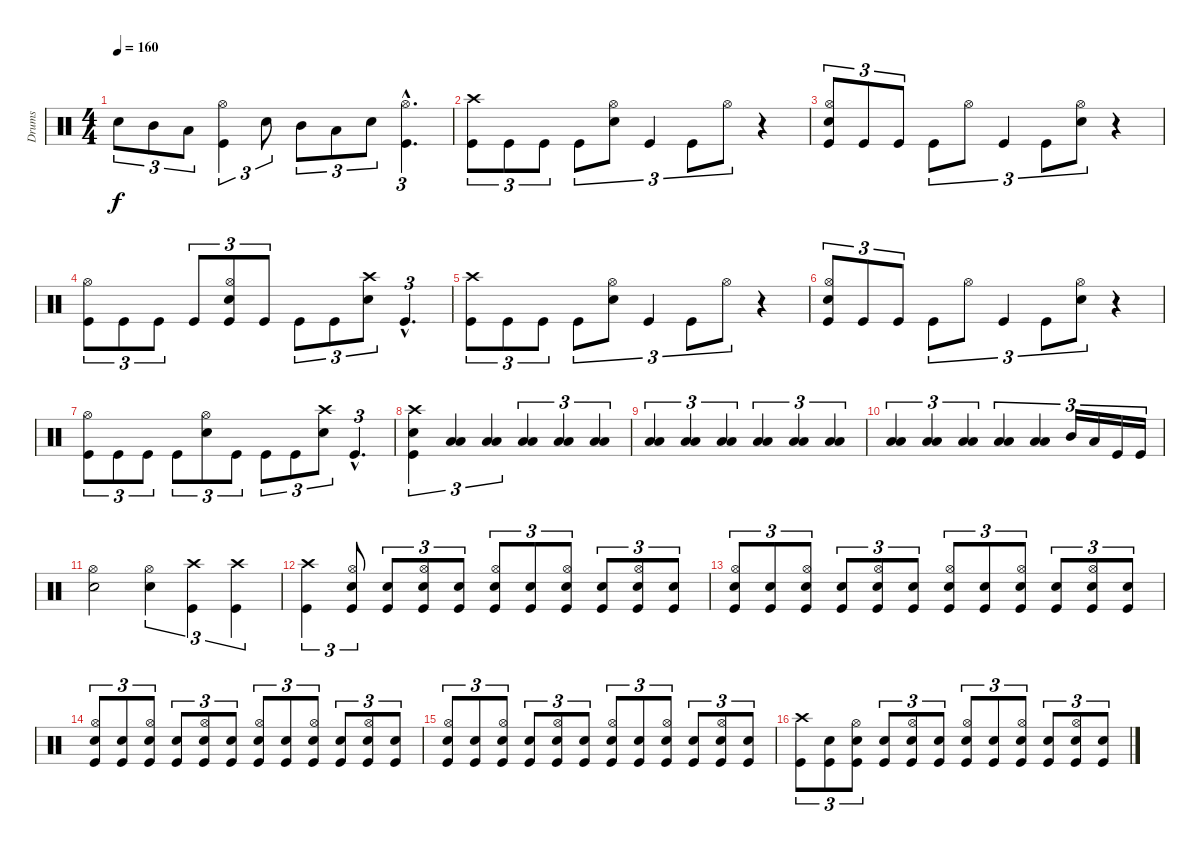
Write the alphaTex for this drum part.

\track ("Drums" "Drums") {instrument percussion}
\staff {score}
\articulation defaults
\ts (4 4)
\tempo 160
\clef neutral
\ks c "Electric Snare (hit)".8{tu (3 2) dy f} "Mid Tom (hit)".8{tu (3 2)} "Low Tom (hit)".8{tu (3 2)}
("Hi-Hat (open)" "Kick (hit)").4{tu (3 2)} "Electric Snare (hit)".8{tu (3 2)} "Mid Tom (hit)".8{tu (3 2)} "Low Tom (hit)".8{tu (3 2)} "Electric Snare (hit)".8{tu (3 2)} ("Hi-Hat (open)"{hac} "Kick (hit)"{hac}).4{d tu (3 2)} |
("Crash high (hit)" "Kick (hit)").8{tu (3 2)} "Kick (hit)".8{tu (3 2)} "Kick (hit)".8{tu (3 2)} "Kick (hit)".8{tu (3 2)} ("Electric Snare (hit)" "Hi-Hat (open)").8{tu (3 2)} "Kick (hit)".4{tu (3 2)} "Kick (hit)".8{tu (3 2)} "Hi-Hat (open)".8{tu (3 2)} r.4 |
("Electric Snare (hit)" "Hi-Hat (open)" "Kick (hit)").8{tu (3 2)} "Kick (hit)".8{tu (3 2)} "Kick (hit)".8{tu (3 2)} "Kick (hit)".8{tu (3 2)} "Hi-Hat (open)".8{tu (3 2)} "Kick (hit)".4{tu (3 2)} "Kick (hit)".8{tu (3 2)} ("Electric Snare (hit)" "Hi-Hat (open)").8{tu (3 2)} r.4 |
("Hi-Hat (open)" "Kick (hit)").8{tu (3 2)} "Kick (hit)".8{tu (3 2)} "Kick (hit)".8{tu (3 2)} "Kick (hit)".8{tu (3 2)} ("Kick (hit)" "Hi-Hat (open)" "Electric Snare (hit)").8{tu (3 2)} "Kick (hit)".8{tu (3 2)} "Kick (hit)".8{tu (3 2)} "Kick (hit)".8{tu (3 2)} ("Crash high (hit)" "Electric Snare (hit)").8{tu (3 2)} "Kick (hit)"{hac}.4{d tu (3 2)} |
("Crash high (hit)" "Kick (hit)").8{tu (3 2)} "Kick (hit)".8{tu (3 2)} "Kick (hit)".8{tu (3 2)} "Kick (hit)".8{tu (3 2)} ("Electric Snare (hit)" "Hi-Hat (open)").8{tu (3 2)} "Kick (hit)".4{tu (3 2)} "Kick (hit)".8{tu (3 2)} "Hi-Hat (open)".8{tu (3 2)} r.4 |
("Electric Snare (hit)" "Hi-Hat (open)" "Kick (hit)").8{tu (3 2)} "Kick (hit)".8{tu (3 2)} "Kick (hit)".8{tu (3 2)} "Kick (hit)".8{tu (3 2)} "Hi-Hat (open)".8{tu (3 2)} "Kick (hit)".4{tu (3 2)} "Kick (hit)".8{tu (3 2)} ("Electric Snare (hit)" "Hi-Hat (open)").8{tu (3 2)} r.4 |
("Hi-Hat (open)" "Kick (hit)").8{tu (3 2)} "Kick (hit)".8{tu (3 2)} "Kick (hit)".8{tu (3 2)} "Kick (hit)".8{tu (3 2)} ("Hi-Hat (open)" "Electric Snare (hit)").8{tu (3 2)} "Kick (hit)".8{tu (3 2)} "Kick (hit)".8{tu (3 2)} "Kick (hit)".8{tu (3 2)} ("Crash high (hit)" "Electric Snare (hit)").8{tu (3 2)} "Kick (hit)"{hac}.4{d tu (3 2)} |
("Kick (hit)" "Crash high (hit)" "Electric Snare (hit)").4{tu (3 2)} ("Low Tom (hit)" "Low Floor Tom (hit)").4{tu (3 2)} ("Low Tom (hit)" "Low Floor Tom (hit)").4{tu (3 2)} ("Low Tom (hit)" "Low Floor Tom (hit)").4{tu (3 2)} ("Low Tom (hit)" "Low Floor Tom (hit)").4{tu (3 2)} ("Low Tom (hit)" "Low Floor Tom (hit)").4{tu (3 2)} |
("Low Tom (hit)" "Low Floor Tom (hit)").4{tu (3 2)} ("Low Tom (hit)" "Low Floor Tom (hit)").4{tu (3 2)} ("Low Tom (hit)" "Low Floor Tom (hit)").4{tu (3 2)} ("Low Tom (hit)" "Low Floor Tom (hit)").4{tu (3 2)} ("Low Tom (hit)" "Low Floor Tom (hit)").4{tu (3 2)} ("Low Tom (hit)" "Low Floor Tom (hit)").4{tu (3 2)} |
("Low Tom (hit)" "Low Floor Tom (hit)").4{tu (3 2)} ("Low Tom (hit)" "Low Floor Tom (hit)").4{tu (3 2)} ("Low Tom (hit)" "Low Floor Tom (hit)").4{tu (3 2)} ("Low Tom (hit)" "Low Floor Tom (hit)").4{tu (3 2)} ("Low Tom (hit)" "Low Floor Tom (hit)").4{tu (3 2)} "Mid Tom (hit)".16{tu (3 2)} "Low Tom (hit)".16{tu (3 2)} "Kick (hit)".16{tu (3 2)} "Kick (hit)".16{tu (3 2)} |
("Hi-Hat (open)" "Electric Snare (hit)").2 ("Hi-Hat (open)" "Electric Snare (hit)").4{tu (3 2)} ("Crash high (hit)" "Kick (hit)").4{tu (3 2)} ("Crash high (hit)" "Kick (hit)").4{tu (3 2)} |
("Crash high (hit)" "Kick (hit)").4{tu (3 2)} ("Kick (hit)" "Hi-Hat (open)" "Electric Snare (hit)").8{tu (3 2)} ("Electric Snare (hit)" "Kick (hit)").8{tu (3 2)} ("Hi-Hat (open)" "Electric Snare (hit)" "Kick (hit)").8{tu (3 2)} ("Electric Snare (hit)" "Kick (hit)").8{tu (3 2)} ("Hi-Hat (open)" "Electric Snare (hit)" "Kick (hit)").8{tu (3 2)} ("Electric Snare (hit)" "Kick (hit)").8{tu (3 2)} ("Hi-Hat (open)" "Electric Snare (hit)" "Kick (hit)").8{tu (3 2)} ("Electric Snare (hit)" "Kick (hit)").8{tu (3 2)} ("Hi-Hat (open)" "Electric Snare (hit)" "Kick (hit)").8{tu (3 2)} ("Electric Snare (hit)" "Kick (hit)").8{tu (3 2)} |
("Hi-Hat (open)" "Electric Snare (hit)" "Kick (hit)").8{tu (3 2)} ("Electric Snare (hit)" "Kick (hit)").8{tu (3 2)} ("Hi-Hat (open)" "Electric Snare (hit)" "Kick (hit)").8{tu (3 2)} ("Electric Snare (hit)" "Kick (hit)").8{tu (3 2)} ("Hi-Hat (open)" "Electric Snare (hit)" "Kick (hit)").8{tu (3 2)} ("Electric Snare (hit)" "Kick (hit)").8{tu (3 2)} ("Hi-Hat (open)" "Electric Snare (hit)" "Kick (hit)").8{tu (3 2)} ("Electric Snare (hit)" "Kick (hit)").8{tu (3 2)} ("Hi-Hat (open)" "Electric Snare (hit)" "Kick (hit)").8{tu (3 2)} ("Electric Snare (hit)" "Kick (hit)").8{tu (3 2)} ("Hi-Hat (open)" "Electric Snare (hit)" "Kick (hit)").8{tu (3 2)} ("Electric Snare (hit)" "Kick (hit)").8{tu (3 2)} |
("Hi-Hat (open)" "Electric Snare (hit)" "Kick (hit)").8{tu (3 2)} ("Electric Snare (hit)" "Kick (hit)").8{tu (3 2)} ("Hi-Hat (open)" "Electric Snare (hit)" "Kick (hit)").8{tu (3 2)} ("Electric Snare (hit)" "Kick (hit)").8{tu (3 2)} ("Hi-Hat (open)" "Electric Snare (hit)" "Kick (hit)").8{tu (3 2)} ("Electric Snare (hit)" "Kick (hit)").8{tu (3 2)} ("Hi-Hat (open)" "Electric Snare (hit)" "Kick (hit)").8{tu (3 2)} ("Electric Snare (hit)" "Kick (hit)").8{tu (3 2)} ("Hi-Hat (open)" "Electric Snare (hit)" "Kick (hit)").8{tu (3 2)} ("Electric Snare (hit)" "Kick (hit)").8{tu (3 2)} ("Hi-Hat (open)" "Electric Snare (hit)" "Kick (hit)").8{tu (3 2)} ("Electric Snare (hit)" "Kick (hit)").8{tu (3 2)} |
("Hi-Hat (open)" "Electric Snare (hit)" "Kick (hit)").8{tu (3 2)} ("Electric Snare (hit)" "Kick (hit)").8{tu (3 2)} ("Hi-Hat (open)" "Electric Snare (hit)" "Kick (hit)").8{tu (3 2)} ("Electric Snare (hit)" "Kick (hit)").8{tu (3 2)} ("Hi-Hat (open)" "Electric Snare (hit)" "Kick (hit)").8{tu (3 2)} ("Electric Snare (hit)" "Kick (hit)").8{tu (3 2)} ("Hi-Hat (open)" "Electric Snare (hit)" "Kick (hit)").8{tu (3 2)} ("Electric Snare (hit)" "Kick (hit)").8{tu (3 2)} ("Hi-Hat (open)" "Electric Snare (hit)" "Kick (hit)").8{tu (3 2)} ("Electric Snare (hit)" "Kick (hit)").8{tu (3 2)} ("Hi-Hat (open)" "Electric Snare (hit)" "Kick (hit)").8{tu (3 2)} ("Electric Snare (hit)" "Kick (hit)").8{tu (3 2)} |
("Crash high (hit)" "Kick (hit)").8{tu (3 2)} ("Electric Snare (hit)" "Kick (hit)").8{tu (3 2)} ("Hi-Hat (open)" "Electric Snare (hit)" "Kick (hit)").8{tu (3 2)} ("Electric Snare (hit)" "Kick (hit)").8{tu (3 2)} ("Hi-Hat (open)" "Electric Snare (hit)" "Kick (hit)").8{tu (3 2)} ("Electric Snare (hit)" "Kick (hit)").8{tu (3 2)} ("Hi-Hat (open)" "Electric Snare (hit)" "Kick (hit)").8{tu (3 2)} ("Electric Snare (hit)" "Kick (hit)").8{tu (3 2)} ("Hi-Hat (open)" "Electric Snare (hit)" "Kick (hit)").8{tu (3 2)} ("Electric Snare (hit)" "Kick (hit)").8{tu (3 2)} ("Hi-Hat (open)" "Electric Snare (hit)" "Kick (hit)").8{tu (3 2)} ("Electric Snare (hit)" "Kick (hit)").8{tu (3 2)}
